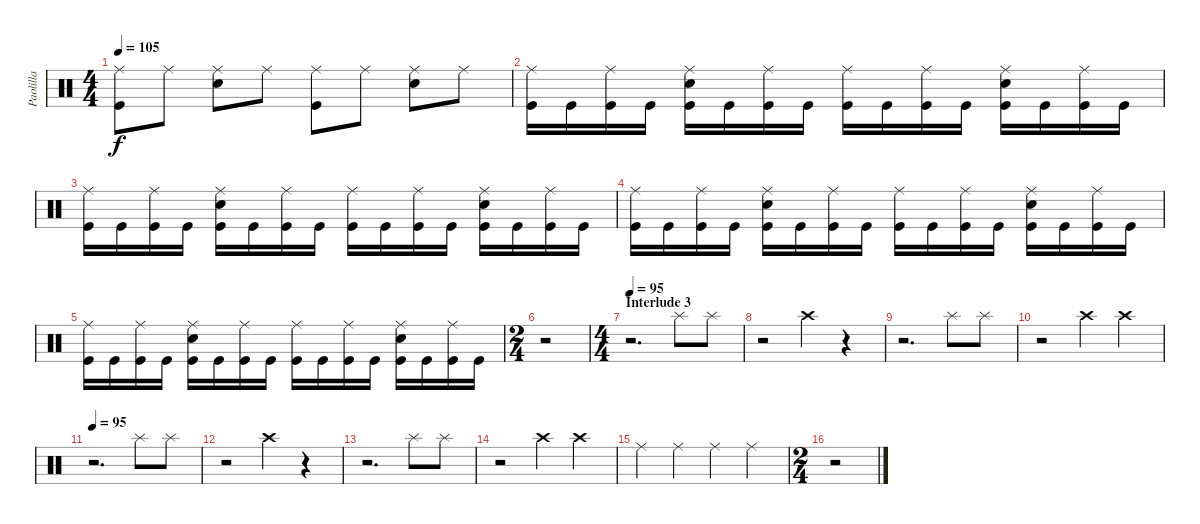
\track ("Paolilla" "Paolilla") {instrument percussion}
\staff {score}
\articulation defaults
\ts (4 4)
\tempo 105
\clef neutral
\ks c
("Ride (middle)" "Kick (hit)").8{dy f} "Ride (middle)".8 ("Ride (middle)" "Snare (hit) 2").8 "Ride (middle)".8 ("Ride (middle)" "Kick (hit)").8 "Ride (middle)".8 ("Ride (middle)" "Snare (hit) 2").8 "Ride (middle)".8 |
("Ride (middle)" "Kick (hit)").16 "Kick (hit)".16 ("Ride (middle)" "Kick (hit)").16 "Kick (hit)".16 ("Ride (middle)" "Snare (hit) 2" "Kick (hit)").16 "Kick (hit)".16 ("Ride (middle)" "Kick (hit)").16 "Kick (hit)".16 ("Ride (middle)" "Kick (hit)").16 "Kick (hit)".16 ("Ride (middle)" "Kick (hit)").16 "Kick (hit)".16 ("Ride (middle)" "Snare (hit) 2" "Kick (hit)").16 "Kick (hit)".16 ("Ride (middle)" "Kick (hit)").16 "Kick (hit)".16 |
("Ride (middle)" "Kick (hit)").16 "Kick (hit)".16 ("Ride (middle)" "Kick (hit)").16 "Kick (hit)".16 ("Ride (middle)" "Snare (hit) 2" "Kick (hit)").16 "Kick (hit)".16 ("Ride (middle)" "Kick (hit)").16 "Kick (hit)".16 ("Ride (middle)" "Kick (hit)").16 "Kick (hit)".16 ("Ride (middle)" "Kick (hit)").16 "Kick (hit)".16 ("Ride (middle)" "Snare (hit) 2" "Kick (hit)").16 "Kick (hit)".16 ("Ride (middle)" "Kick (hit)").16 "Kick (hit)".16 |
("Ride (middle)" "Kick (hit)").16 "Kick (hit)".16 ("Ride (middle)" "Kick (hit)").16 "Kick (hit)".16 ("Ride (middle)" "Snare (hit) 2" "Kick (hit)").16 "Kick (hit)".16 ("Ride (middle)" "Kick (hit)").16 "Kick (hit)".16 ("Ride (middle)" "Kick (hit)").16 "Kick (hit)".16 ("Ride (middle)" "Kick (hit)").16 "Kick (hit)".16 ("Ride (middle)" "Snare (hit) 2" "Kick (hit)").16 "Kick (hit)".16 ("Ride (middle)" "Kick (hit)").16 "Kick (hit)".16 |
("Ride (middle)" "Kick (hit)").16 "Kick (hit)".16 ("Ride (middle)" "Kick (hit)").16 "Kick (hit)".16 ("Ride (middle)" "Snare (hit) 2" "Kick (hit)").16 "Kick (hit)".16 ("Ride (middle)" "Kick (hit)").16 "Kick (hit)".16 ("Ride (middle)" "Kick (hit)").16 "Kick (hit)".16 ("Ride (middle)" "Kick (hit)").16 "Kick (hit)".16 ("Ride (middle)" "Snare (hit) 2" "Kick (hit)").16 "Kick (hit)".16 ("Ride (middle)" "Kick (hit)").16 "Kick (hit)".16 |
\ts (2 4)
r.2 |
\ts (4 4)
\section ("" "Interlude 3")
\tempo 95
r.2{d} "Splash (hit)".8 "Splash (hit)".8 |
r.2 "Crash high (hit)".4 r.4 |
r.2{d} "Splash (hit)".8 "Splash (hit)".8 |
r.2 "Crash high (hit)".4 "Crash high (hit)".4 |
\tempo 95
r.2{d} "Splash (hit)".8 "Splash (hit)".8 |
r.2 "Crash high (hit)".4 r.4 |
r.2{d} "Splash (hit)".8 "Splash (hit)".8 |
r.2 "Crash high (hit)".4 "Crash high (hit)".4 |
"Ride (middle)".4 "Ride (middle)".4 "Ride (middle)".4 "Ride (middle)".4 |
\ts (2 4)
r.2
